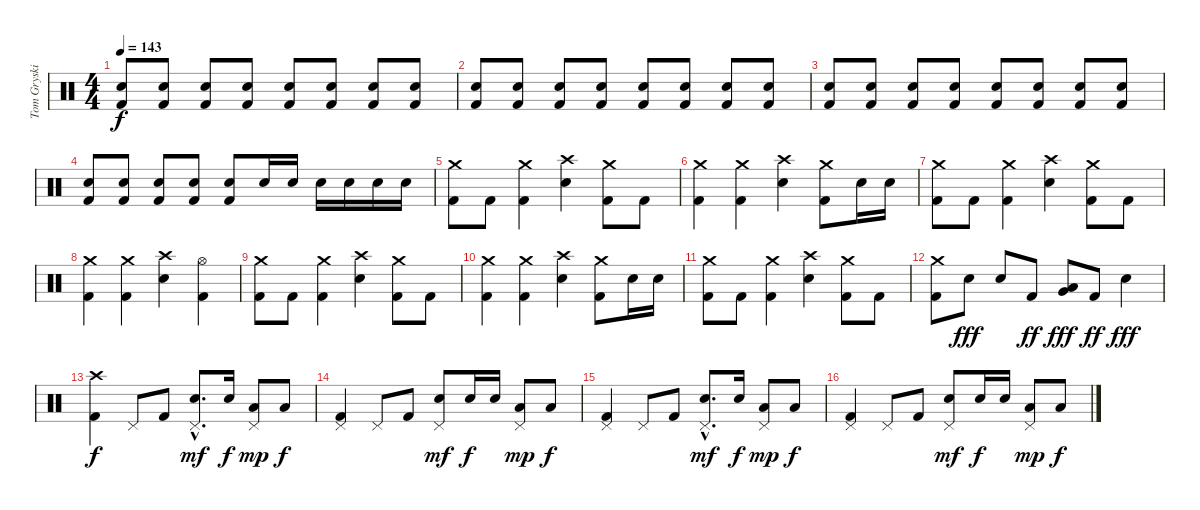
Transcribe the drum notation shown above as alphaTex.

\track ("Tom Gryskiewicz - Drums" "Tom Gryski") {instrument percussion}
\staff {score}
\articulation defaults
\ts (4 4)
\tempo 143
\clef neutral
\ks c
("Electric Snare (hit)" "Kick (hit) 2").8{dy f volume 11} ("Electric Snare (hit)" "Kick (hit) 2").8 ("Electric Snare (hit)" "Kick (hit) 2").8 ("Electric Snare (hit)" "Kick (hit) 2").8 ("Electric Snare (hit)" "Kick (hit) 2").8 ("Electric Snare (hit)" "Kick (hit) 2").8 ("Electric Snare (hit)" "Kick (hit) 2").8 ("Electric Snare (hit)" "Kick (hit) 2").8 |
("Electric Snare (hit)" "Kick (hit) 2").8 ("Electric Snare (hit)" "Kick (hit) 2").8 ("Electric Snare (hit)" "Kick (hit) 2").8 ("Electric Snare (hit)" "Kick (hit) 2").8 ("Electric Snare (hit)" "Kick (hit) 2").8 ("Electric Snare (hit)" "Kick (hit) 2").8 ("Electric Snare (hit)" "Kick (hit) 2").8 ("Electric Snare (hit)" "Kick (hit) 2").8 |
("Electric Snare (hit)" "Kick (hit) 2").8{volume 13} ("Electric Snare (hit)" "Kick (hit) 2").8 ("Electric Snare (hit)" "Kick (hit) 2").8 ("Electric Snare (hit)" "Kick (hit) 2").8 ("Electric Snare (hit)" "Kick (hit) 2").8 ("Electric Snare (hit)" "Kick (hit) 2").8 ("Electric Snare (hit)" "Kick (hit) 2").8 ("Electric Snare (hit)" "Kick (hit) 2").8 |
("Electric Snare (hit)" "Kick (hit) 2").8 ("Electric Snare (hit)" "Kick (hit) 2").8 ("Electric Snare (hit)" "Kick (hit) 2").8 ("Electric Snare (hit)" "Kick (hit) 2").8 ("Electric Snare (hit)" "Kick (hit) 2").8 "Electric Snare (hit)".16 "Electric Snare (hit)".16 "Electric Snare (hit)".16 "Electric Snare (hit)".16 "Electric Snare (hit)".16 "Electric Snare (hit)".16 |
("Crash medium (hit)" "Kick (hit) 2").8 "Kick (hit) 2".8 ("Crash medium (hit)" "Kick (hit) 2").4 ("Crash high (hit)" "Electric Snare (hit)").4 ("Crash medium (hit)" "Kick (hit) 2").8 "Kick (hit) 2".8 |
("Crash medium (hit)" "Kick (hit) 2").4 ("Crash medium (hit)" "Kick (hit) 2").4 ("Crash high (hit)" "Electric Snare (hit)").4 ("Crash medium (hit)" "Kick (hit) 2").8 "Electric Snare (hit)".16 "Electric Snare (hit)".16 |
("Crash medium (hit)" "Kick (hit) 2").8 "Kick (hit) 2".8 ("Crash medium (hit)" "Kick (hit) 2").4 ("Crash high (hit)" "Electric Snare (hit)").4 ("Crash medium (hit)" "Kick (hit) 2").8 "Kick (hit) 2".8 |
("Crash medium (hit)" "Kick (hit) 2").4 ("Crash medium (hit)" "Kick (hit) 2").4 ("Crash high (hit)" "Electric Snare (hit)").4 ("Hi-Hat (open)" "Kick (hit) 2").4 |
("Crash medium (hit)" "Kick (hit) 2").8 "Kick (hit) 2".8 ("Crash medium (hit)" "Kick (hit) 2").4 ("Crash high (hit)" "Electric Snare (hit)").4 ("Crash medium (hit)" "Kick (hit) 2").8 "Kick (hit) 2".8 |
("Crash medium (hit)" "Kick (hit) 2").4 ("Crash medium (hit)" "Kick (hit) 2").4 ("Crash high (hit)" "Electric Snare (hit)").4 ("Crash medium (hit)" "Kick (hit) 2").8 "Electric Snare (hit)".16 "Electric Snare (hit)".16 |
("Crash medium (hit)" "Kick (hit) 2").8 "Kick (hit) 2".8 ("Crash medium (hit)" "Kick (hit) 2").4 ("Crash high (hit)" "Electric Snare (hit)").4 ("Crash medium (hit)" "Kick (hit) 2").8 "Kick (hit) 2".8 |
("Crash medium (hit)" "Kick (hit) 2").8 "Electric Snare (hit)".8{dy fff} "Electric Snare (hit)".8 "Kick (hit) 2".8{dy ff} ("Very Low Tom (hit)" "Low Tom (hit)").8{dy fff} "Kick (hit) 2".8{dy ff} "Electric Snare (hit)".4{dy fff} |
("Crash high (hit)" "Kick (hit) 2").4{dy f} "Pedal Hi-Hat (hit)".8 "Kick (hit) 2".8 ("Pedal Hi-Hat (hit)"{hac} "Electric Snare (hit)"{hac}).8{d dy mf} "Electric Snare (hit)".16{dy f} ("Pedal Hi-Hat (hit)" "Low Tom (hit)").8{dy mp} "Low Tom (hit)".8{dy f} |
("Pedal Hi-Hat (hit)" "Kick (hit) 2").4 "Pedal Hi-Hat (hit)".8 "Kick (hit) 2".8 ("Pedal Hi-Hat (hit)" "Electric Snare (hit)").8{dy mf} "Electric Snare (hit)".16{dy f} "Electric Snare (hit)".16 ("Pedal Hi-Hat (hit)" "Low Tom (hit)").8{dy mp} "Low Tom (hit)".8{dy f} |
("Pedal Hi-Hat (hit)" "Kick (hit) 2").4 "Pedal Hi-Hat (hit)".8 "Kick (hit) 2".8 ("Pedal Hi-Hat (hit)"{hac} "Electric Snare (hit)"{hac}).8{d dy mf} "Electric Snare (hit)".16{dy f} ("Pedal Hi-Hat (hit)" "Low Tom (hit)").8{dy mp} "Low Tom (hit)".8{dy f} |
("Pedal Hi-Hat (hit)" "Kick (hit) 2").4 "Pedal Hi-Hat (hit)".8 "Kick (hit) 2".8 ("Pedal Hi-Hat (hit)" "Electric Snare (hit)").8{dy mf} "Electric Snare (hit)".16{dy f} "Electric Snare (hit)".16 ("Pedal Hi-Hat (hit)" "Low Tom (hit)").8{dy mp} "Low Tom (hit)".8{dy f}
